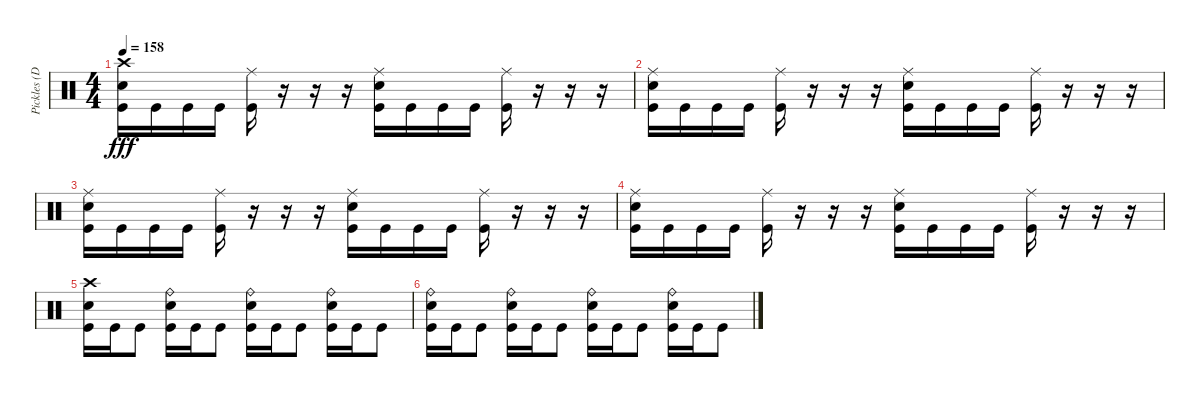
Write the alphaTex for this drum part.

\track ("Pickles (Drums)" "Pickles (D") {instrument percussion}
\staff {score}
\articulation defaults
\ts (4 4)
\tempo 158
\clef neutral
\ks c
("Crash high (hit)" "Snare (hit) 2" "Kick (hit)").16{dy fff} "Kick (hit)".16 "Kick (hit)".16 "Kick (hit)".16 ("Ride (middle)" "Kick (hit)").16 r.16 r.16 r.16 ("Ride (middle)" "Snare (hit) 2" "Kick (hit)").16 "Kick (hit)".16 "Kick (hit)".16 "Kick (hit)".16 ("Ride (middle)" "Kick (hit)").16 r.16 r.16 r.16 |
("Ride (middle)" "Snare (hit) 2" "Kick (hit)").16 "Kick (hit)".16 "Kick (hit)".16 "Kick (hit)".16 ("Ride (middle)" "Kick (hit)").16 r.16 r.16 r.16 ("Ride (middle)" "Snare (hit) 2" "Kick (hit)").16 "Kick (hit)".16 "Kick (hit)".16 "Kick (hit)".16 ("Ride (middle)" "Kick (hit)").16 r.16 r.16 r.16 |
("Ride (middle)" "Snare (hit) 2" "Kick (hit)").16 "Kick (hit)".16 "Kick (hit)".16 "Kick (hit)".16 ("Ride (middle)" "Kick (hit)").16 r.16 r.16 r.16 ("Ride (middle)" "Snare (hit) 2" "Kick (hit)").16 "Kick (hit)".16 "Kick (hit)".16 "Kick (hit)".16 ("Ride (middle)" "Kick (hit)").16 r.16 r.16 r.16 |
("Ride (middle)" "Snare (hit) 2" "Kick (hit)").16 "Kick (hit)".16 "Kick (hit)".16 "Kick (hit)".16 ("Ride (middle)" "Kick (hit)").16 r.16 r.16 r.16 ("Ride (middle)" "Snare (hit) 2" "Kick (hit)").16 "Kick (hit)".16 "Kick (hit)".16 "Kick (hit)".16 ("Ride (middle)" "Kick (hit)").16 r.16 r.16 r.16 |
("Crash high (hit)" "Snare (hit) 2" "Kick (hit)").16 "Kick (hit)".16 "Kick (hit)".8 ("Ride (bell)" "Snare (hit) 2" "Kick (hit)").16 "Kick (hit)".16 "Kick (hit)".8 ("Ride (bell)" "Snare (hit) 2" "Kick (hit)").16 "Kick (hit)".16 "Kick (hit)".8 ("Ride (bell)" "Snare (hit) 2" "Kick (hit)").16 "Kick (hit)".16 "Kick (hit)".8 |
("Ride (bell)" "Snare (hit) 2" "Kick (hit)").16 "Kick (hit)".16 "Kick (hit)".8 ("Ride (bell)" "Snare (hit) 2" "Kick (hit)").16 "Kick (hit)".16 "Kick (hit)".8 ("Ride (bell)" "Snare (hit) 2" "Kick (hit)").16 "Kick (hit)".16 "Kick (hit)".8 ("Ride (bell)" "Snare (hit) 2" "Kick (hit)").16 "Kick (hit)".16 "Kick (hit)".8
